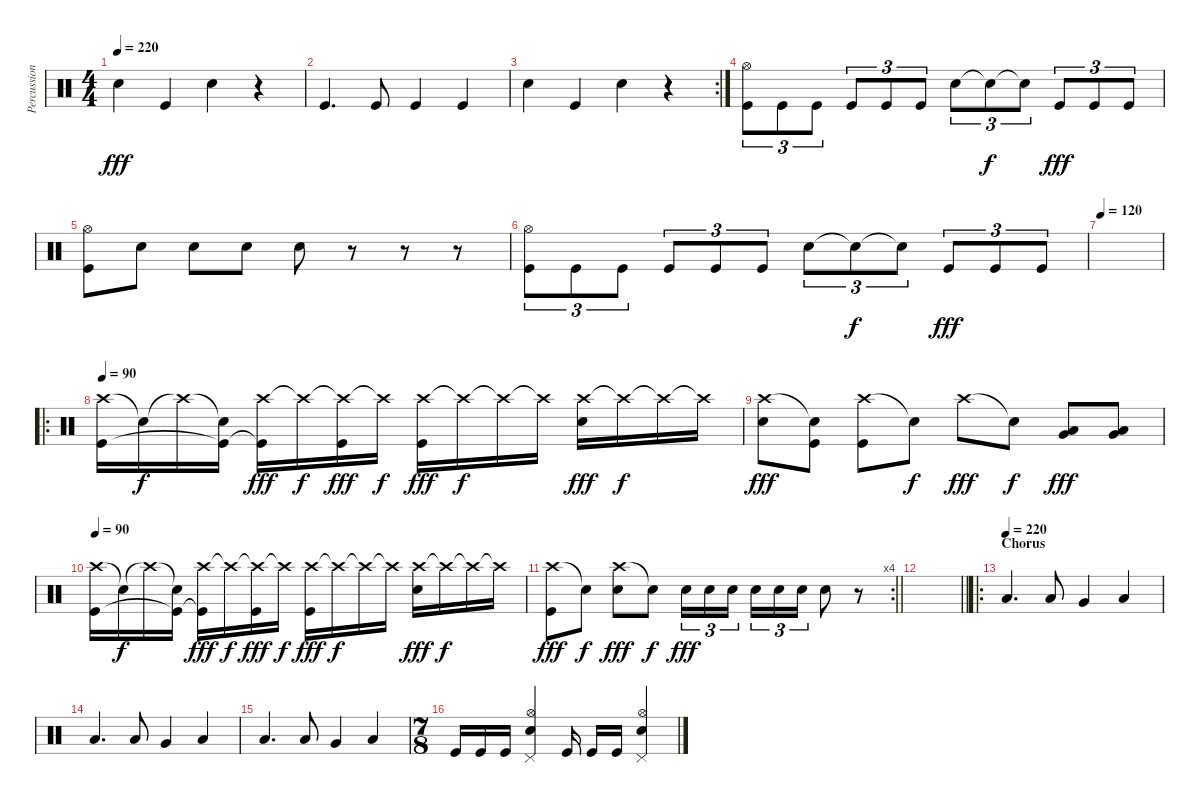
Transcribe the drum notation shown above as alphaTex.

\track ("Percussion" "Percussion") {instrument percussion}
\staff {score}
\articulation defaults
\ts (4 4)
\tempo 220
\clef neutral
\ks c "Electric Snare (hit)".4{dy fff} "Kick (hit)".4 "Electric Snare (hit)".4
r.4 |
"Kick (hit)".4{d} "Kick (hit)".8 "Kick (hit)".4 "Kick (hit)".4 |
\rc 2 "Electric Snare (hit)".4 "Kick (hit)".4 "Electric Snare (hit)".4
r.4 |
("Hi-Hat (open)" "Kick (hit)").8{tu (3 2)} "Kick (hit)".8{tu (3 2)} "Kick (hit)".8{tu (3 2)} "Kick (hit)".8{tu (3 2)} "Kick (hit)".8{tu (3 2)} "Kick (hit)".8{tu (3 2)} "Electric Snare (hit)".8{tu (3 2)} "Snare (hit)"{t}.8{tu (3 2) dy f} "Snare (hit)"{t}.8{tu (3 2)} "Kick (hit)".8{tu (3 2) dy fff} "Kick (hit)".8{tu (3 2)} "Kick (hit)".8{tu (3 2)} |
("Hi-Hat (open)" "Kick (hit)").8 "Electric Snare (hit)".8 "Electric Snare (hit)".8 "Electric Snare (hit)".8 "Electric Snare (hit)".8 r.8 r.8 r.8 |
("Hi-Hat (open)" "Kick (hit)").8{tu (3 2)} "Kick (hit)".8{tu (3 2)} "Kick (hit)".8{tu (3 2)} "Kick (hit)".8{tu (3 2)} "Kick (hit)".8{tu (3 2)} "Kick (hit)".8{tu (3 2)} "Electric Snare (hit)".8{tu (3 2)} "Snare (hit)"{t}.8{tu (3 2) dy f} "Snare (hit)"{t}.8{tu (3 2)} "Kick (hit)".8{tu (3 2) dy fff} "Kick (hit)".8{tu (3 2)} "Kick (hit)".8{tu (3 2)} |
\tempo 120
|
\ro
\tempo 90
("Crash high (hit)" "Kick (hit)").16 "Snare (hit)"{t}.16{dy f} "Crash high (hit)"{t}.16 ("Snare (hit)"{t} "Kick (hit)"{t}).16 ("Crash high (hit)" "Kick (hit)"{t}).16{dy fff} "Crash high (hit)"{t}.16{dy f} ("Crash high (hit)"{t} "Kick (hit)").16{dy fff} "Crash high (hit)"{t}.16{dy f} ("Crash high (hit)" "Kick (hit)").16{dy fff} "Crash high (hit)"{t}.16{dy f} "Crash high (hit)"{t}.16 "Crash high (hit)"{t}.16 ("Crash high (hit)" "Electric Snare (hit)").16{dy fff} "Crash high (hit)"{t}.16{dy f} "Crash high (hit)"{t}.16 "Crash high (hit)"{t}.16 |
("Crash high (hit)" "Electric Snare (hit)").8{dy fff} ("Snare (hit)"{t} "Kick (hit)").8 ("Crash high (hit)" "Kick (hit)").8 "Snare (hit)"{t}.8{dy f} "Crash high (hit)".8{dy fff} "Snare (hit)"{t}.8{dy f} ("Low Tom (hit)" "Very Low Tom (hit)").8{dy fff} ("Low Tom (hit)" "Very Low Tom (hit)").8 |
\tempo 90
("Crash high (hit)" "Kick (hit)").16 "Snare (hit)"{t}.16{dy f} "Crash high (hit)"{t}.16 ("Snare (hit)"{t} "Kick (hit)"{t}).16 ("Crash high (hit)" "Kick (hit)"{t}).16{dy fff} "Crash high (hit)"{t}.16{dy f} ("Crash high (hit)"{t} "Kick (hit)").16{dy fff} "Crash high (hit)"{t}.16{dy f} ("Crash high (hit)" "Kick (hit)").16{dy fff} "Crash high (hit)"{t}.16{dy f} "Crash high (hit)"{t}.16 "Crash high (hit)"{t}.16 ("Crash high (hit)" "Electric Snare (hit)").16{dy fff} "Crash high (hit)"{t}.16{dy f} "Crash high (hit)"{t}.16 "Crash high (hit)"{t}.16 |
\rc 4
\barLineRight lightlight
("Crash high (hit)" "Kick (hit)").8{dy fff} "Snare (hit)"{t}.8{dy f} ("Crash high (hit)" "Electric Snare (hit)").8{dy fff} "Snare (hit)"{t}.8{dy f} "Electric Snare (hit)".16{tu (3 2) dy fff} "Electric Snare (hit)".16{tu (3 2)} "Electric Snare (hit)".16{tu (3 2) beam splitsecondary} "Electric Snare (hit)".16{tu (3 2)} "Electric Snare (hit)".16{tu (3 2)} "Electric Snare (hit)".16{tu (3 2)} "Electric Snare (hit)".8 r.8 |
\barLineRight lightlight
|
\ro
\section ("" "Chorus")
\tempo (220)
"Low Floor Tom (hit)".4{d} "Low Tom (hit)".8 "Very Low Tom (hit)".4 "Low Floor Tom (hit)".4 |
"Low Floor Tom (hit)".4{d} "Low Tom (hit)".8 "Very Low Tom (hit)".4 "Low Floor Tom (hit)".4 |
"Low Floor Tom (hit)".4{d} "Low Tom (hit)".8 "Very Low Tom (hit)".4 "Low Floor Tom (hit)".4 |
\ts (7 8)
"Kick (hit)".16 "Kick (hit)".16 "Kick (hit)".16 ("Pedal Hi-Hat (hit)" "Hi-Hat (open)" "Electric Snare (hit)").4 "Kick (hit)".16 "Kick (hit)".16 "Kick (hit)".16 ("Pedal Hi-Hat (hit)" "Hi-Hat (open)" "Electric Snare (hit)").4
